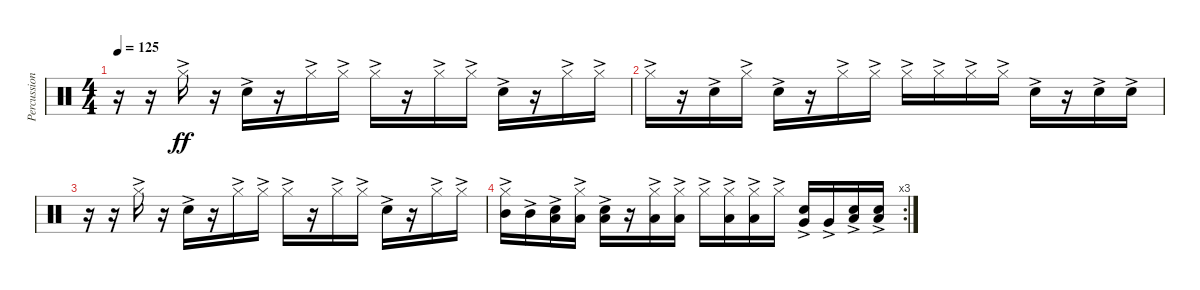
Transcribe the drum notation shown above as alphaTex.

\track ("Percussion" "Percussion") {instrument percussion}
\staff {score}
\articulation defaults
\ts (4 4)
\tempo 125
\clef neutral
\ks c
r.16{dy ff} r.16 "Hi-Hat (closed)"{ac}.16 r.16 "Snare (hit) 2"{ac}.16 r.16 "Hi-Hat (closed)"{ac}.16 "Hi-Hat (closed)"{ac}.16 "Hi-Hat (closed)"{ac}.16 r.16 "Hi-Hat (closed)"{ac}.16 "Hi-Hat (closed)"{ac}.16 "Snare (hit) 2"{ac}.16 r.16 "Hi-Hat (closed)"{ac}.16 "Hi-Hat (closed)"{ac}.16 |
"Hi-Hat (closed)"{ac}.16 r.16 "Snare (hit) 2"{ac}.16 "Hi-Hat (closed)"{ac}.16 "Snare (hit) 2"{ac}.16 r.16 "Hi-Hat (closed)"{ac}.16 "Hi-Hat (closed)"{ac}.16 "Hi-Hat (closed)"{ac}.16 "Hi-Hat (closed)"{ac}.16 "Hi-Hat (closed)"{ac}.16 "Hi-Hat (closed)"{ac}.16 "Snare (hit) 2"{ac}.16 r.16 "Snare (hit) 2"{ac}.16 "Snare (hit) 2"{ac}.16 |
r.16 r.16 "Hi-Hat (closed)"{ac}.16 r.16 "Snare (hit) 2"{ac}.16 r.16 "Hi-Hat (closed)"{ac}.16 "Hi-Hat (closed)"{ac}.16 "Hi-Hat (closed)"{ac}.16 r.16 "Hi-Hat (closed)"{ac}.16 "Hi-Hat (closed)"{ac}.16 "Snare (hit) 2"{ac}.16 r.16 "Hi-Hat (closed)"{ac}.16 "Hi-Hat (closed)"{ac}.16 |
\rc 3
("Hi-Hat (closed)"{ac} "Mid Tom (hit)"{ac}).16 "Mid Tom (hit)"{ac}.16 ("Snare (hit) 2"{ac} "Low Tom (hit)"{ac}).16 ("Hi-Hat (closed)"{ac} "Low Tom (hit)"{ac}).16 ("Snare (hit) 2"{ac} "Low Tom (hit)"{ac}).16 r.16 ("Hi-Hat (closed)"{ac} "Low Tom (hit)"{ac}).16 ("Hi-Hat (closed)"{ac} "Low Tom (hit)"{ac}).16 "Hi-Hat (closed)"{ac}.16 ("Hi-Hat (closed)"{ac} "Low Tom (hit)"{ac}).16 ("Hi-Hat (closed)"{ac} "Low Tom (hit)"{ac}).16 "Hi-Hat (closed)"{ac}.16 ("Snare (hit) 2"{ac} "Very Low Tom (hit)"{ac}).16 "Very Low Tom (hit)"{ac}.16 ("Snare (hit) 2"{ac} "Low Floor Tom (hit)"{ac}).16 ("Snare (hit) 2"{ac} "Low Floor Tom (hit)"{ac}).16
